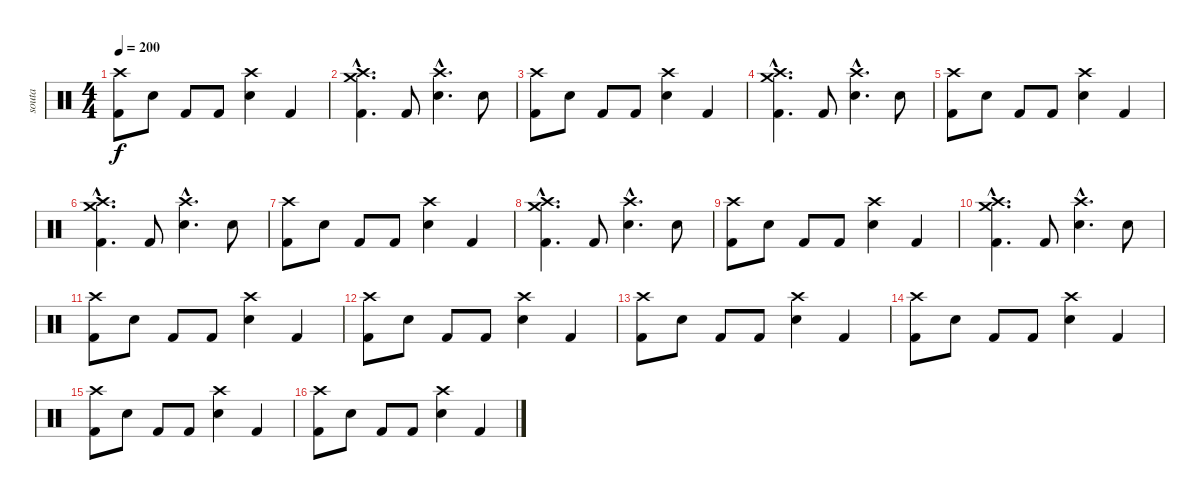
\track ("souta" "souta") {instrument percussion}
\staff {score}
\articulation defaults
\ts (4 4)
\tempo 200
\clef neutral
\ks c
("Crash high (hit)" "Kick (hit) 2").8{dy f} "Snare (hit) 2".8 "Kick (hit) 2".8 "Kick (hit) 2".8 ("Crash high (hit)" "Snare (hit) 2").4 "Kick (hit) 2".4 |
("Crash high (hit)"{hac} "Kick (hit) 2"{hac} "Crash medium (hit)"{hac}).4{d} "Kick (hit) 2".8 ("Crash high (hit)"{hac} "Snare (hit) 2"{hac}).4{d} "Snare (hit) 2".8 |
("Crash high (hit)" "Kick (hit) 2").8 "Snare (hit) 2".8 "Kick (hit) 2".8 "Kick (hit) 2".8 ("Crash high (hit)" "Snare (hit) 2").4 "Kick (hit) 2".4 |
("Crash high (hit)"{hac} "Kick (hit) 2"{hac} "Crash medium (hit)"{hac}).4{d} "Kick (hit) 2".8 ("Crash high (hit)"{hac} "Snare (hit) 2"{hac}).4{d} "Snare (hit) 2".8 |
("Crash high (hit)" "Kick (hit) 2").8 "Snare (hit) 2".8 "Kick (hit) 2".8 "Kick (hit) 2".8 ("Crash high (hit)" "Snare (hit) 2").4 "Kick (hit) 2".4 |
("Crash high (hit)"{hac} "Kick (hit) 2"{hac} "Crash medium (hit)"{hac}).4{d} "Kick (hit) 2".8 ("Crash high (hit)"{hac} "Snare (hit) 2"{hac}).4{d} "Snare (hit) 2".8 |
("Crash high (hit)" "Kick (hit) 2").8 "Snare (hit) 2".8 "Kick (hit) 2".8 "Kick (hit) 2".8 ("Crash high (hit)" "Snare (hit) 2").4 "Kick (hit) 2".4 |
("Crash high (hit)"{hac} "Kick (hit) 2"{hac} "Crash medium (hit)"{hac}).4{d} "Kick (hit) 2".8 ("Crash high (hit)"{hac} "Snare (hit) 2"{hac}).4{d} "Snare (hit) 2".8 |
("Crash high (hit)" "Kick (hit) 2").8 "Snare (hit) 2".8 "Kick (hit) 2".8 "Kick (hit) 2".8 ("Crash high (hit)" "Snare (hit) 2").4 "Kick (hit) 2".4 |
("Crash high (hit)"{hac} "Kick (hit) 2"{hac} "Crash medium (hit)"{hac}).4{d} "Kick (hit) 2".8 ("Crash high (hit)"{hac} "Snare (hit) 2"{hac}).4{d} "Snare (hit) 2".8 |
("Crash high (hit)" "Kick (hit) 2").8 "Snare (hit) 2".8 "Kick (hit) 2".8 "Kick (hit) 2".8 ("Crash high (hit)" "Snare (hit) 2").4 "Kick (hit) 2".4 |
("Crash high (hit)" "Kick (hit) 2").8 "Snare (hit) 2".8 "Kick (hit) 2".8 "Kick (hit) 2".8 ("Crash high (hit)" "Snare (hit) 2").4 "Kick (hit) 2".4 |
("Crash high (hit)" "Kick (hit) 2").8 "Snare (hit) 2".8 "Kick (hit) 2".8 "Kick (hit) 2".8 ("Crash high (hit)" "Snare (hit) 2").4 "Kick (hit) 2".4 |
("Crash high (hit)" "Kick (hit) 2").8 "Snare (hit) 2".8 "Kick (hit) 2".8 "Kick (hit) 2".8 ("Crash high (hit)" "Snare (hit) 2").4 "Kick (hit) 2".4 |
("Crash high (hit)" "Kick (hit) 2").8 "Snare (hit) 2".8 "Kick (hit) 2".8 "Kick (hit) 2".8 ("Crash high (hit)" "Snare (hit) 2").4 "Kick (hit) 2".4 |
("Crash high (hit)" "Kick (hit) 2").8 "Snare (hit) 2".8 "Kick (hit) 2".8 "Kick (hit) 2".8 ("Crash high (hit)" "Snare (hit) 2").4 "Kick (hit) 2".4
